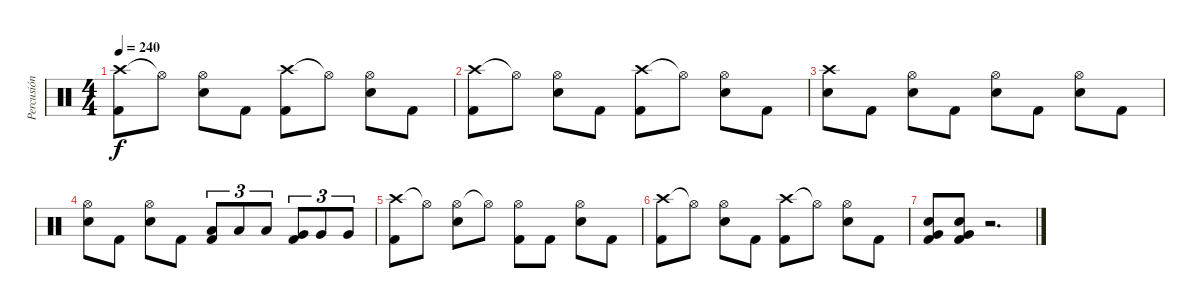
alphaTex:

\track ("Percusión" "Percusión") {instrument percussion}
\staff {score}
\articulation defaults
\ts (4 4)
\tempo 240
\clef neutral
\ks c
("Crash high (hit)" "Kick (hit) 2").8{dy f} "Hi-Hat (open)"{t}.8 ("Hi-Hat (open)" "Snare (hit) 2").8 "Kick (hit) 2".8 ("Crash high (hit)" "Kick (hit) 2").8 "Hi-Hat (open)"{t}.8 ("Hi-Hat (open)" "Snare (hit) 2").8 "Kick (hit) 2".8 |
("Crash high (hit)" "Kick (hit) 2").8 "Hi-Hat (open)"{t}.8 ("Hi-Hat (open)" "Snare (hit) 2").8 "Kick (hit) 2".8 ("Crash high (hit)" "Kick (hit) 2").8 "Hi-Hat (open)"{t}.8 ("Hi-Hat (open)" "Snare (hit) 2").8 "Kick (hit) 2".8 |
("Crash high (hit)" "Snare (hit) 2").8 "Kick (hit) 2".8 ("Snare (hit) 2" "Hi-Hat (open)").8 "Kick (hit) 2".8 ("Snare (hit) 2" "Hi-Hat (open)").8 "Kick (hit) 2".8 ("Snare (hit) 2" "Hi-Hat (open)").8 "Kick (hit) 2".8 |
("Snare (hit) 2" "Hi-Hat (open)").8 "Kick (hit) 2".8 ("Snare (hit) 2" "Hi-Hat (open)").8 "Kick (hit) 2".8 ("Low Tom (hit)" "Kick (hit) 2").8{tu (3 2)} "Low Tom (hit)".8{tu (3 2)} "Low Tom (hit)".8{tu (3 2)} ("Very Low Tom (hit)" "Kick (hit) 2").8{tu (3 2)} "Very Low Tom (hit)".8{tu (3 2)} "Very Low Tom (hit)".8{tu (3 2)} |
("Crash high (hit)" "Kick (hit) 2").8 "Hi-Hat (open)"{t}.8 ("Hi-Hat (open)" "Snare (hit) 2").8 "Hi-Hat (open)"{t}.8 ("Hi-Hat (open)" "Kick (hit) 2").8 "Kick (hit) 2".8 ("Hi-Hat (open)" "Snare (hit) 2").8 "Kick (hit) 2".8 |
("Crash high (hit)" "Kick (hit) 2").8 "Hi-Hat (open)"{t}.8 ("Hi-Hat (open)" "Snare (hit) 2").8 "Kick (hit) 2".8 ("Crash high (hit)" "Kick (hit) 2").8 "Hi-Hat (open)"{t}.8 ("Hi-Hat (open)" "Snare (hit) 2").8 "Kick (hit) 2".8 |
("Kick (hit) 2" "Snare (hit) 2" "Very Low Tom (hit)").8 ("Kick (hit) 2" "Snare (hit) 2" "Very Low Tom (hit)").8 r.2{d}
